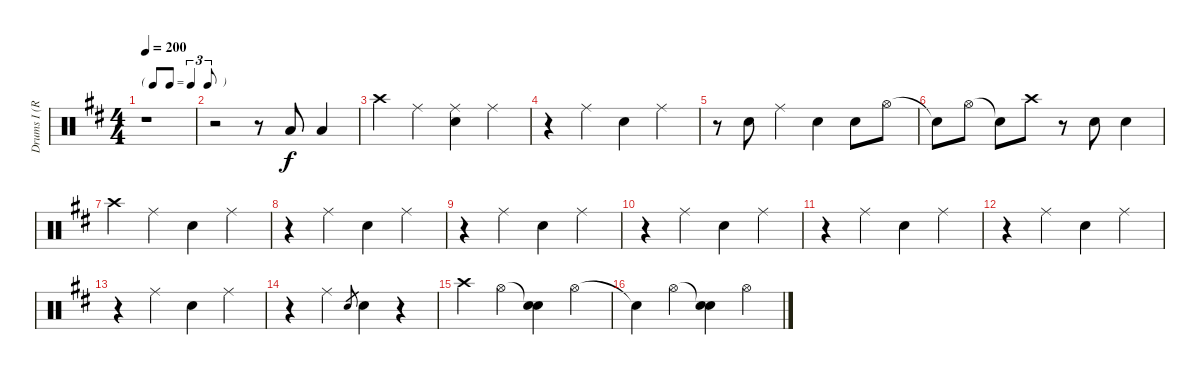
\track ("Drums I (Ruka)" "Drums I (R") {instrument percussion}
\staff {score}
\articulation defaults
\ts (4 4)
\tf triplet8th
\tempo 200
\clef neutral
\ks d
r.1{dy f} |
r.2 r.8 "Low Tom (hit)".8 "Low Tom (hit)".4 |
"Crash high (hit)".4 "Ride (middle)".4 ("Ride (middle)" "Snare (hit) 2").4 "Ride (middle)".4 |
r.4 "Ride (middle)".4 "Snare (hit) 2".4 "Ride (middle)".4 |
r.8 "Snare (hit) 2".8 "Ride (middle)".4 "Snare (hit) 2".4 "Snare (hit) 2".8 "Hi-Hat (open)".8 |
"Snare (hit)"{t}.8 "Hi-Hat (open)".8 "Snare (hit)"{t}.8 "Crash high (hit)".8 r.8 "Snare (hit) 2".8 "Snare (hit) 2".4 |
"Crash high (hit)".4 "Ride (middle)".4 "Snare (hit) 2".4 "Ride (middle)".4 |
r.4 "Ride (middle)".4 "Snare (hit) 2".4 "Ride (middle)".4 |
r.4 "Ride (middle)".4 "Snare (hit) 2".4 "Ride (middle)".4 |
r.4 "Ride (middle)".4 "Snare (hit) 2".4 "Ride (middle)".4 |
r.4 "Ride (middle)".4 "Snare (hit) 2".4 "Ride (middle)".4 |
r.4 "Ride (middle)".4 "Snare (hit) 2".4 "Ride (middle)".4 |
r.4 "Ride (middle)".4 "Snare (hit) 2".4 "Ride (middle)".4 |
r.4 "Ride (middle)".4 "Snare (hit) 2".8{gr} "Snare (hit) 2".4 r.4 |
"Crash high (hit)".4 "Hi-Hat (open)".4 ("Snare (hit)"{t} "Snare (hit) 2").4 "Hi-Hat (open)".4 |
"Snare (hit)"{t}.4 "Hi-Hat (open)".4 ("Snare (hit)"{t} "Snare (hit) 2").4 "Hi-Hat (open)".4
